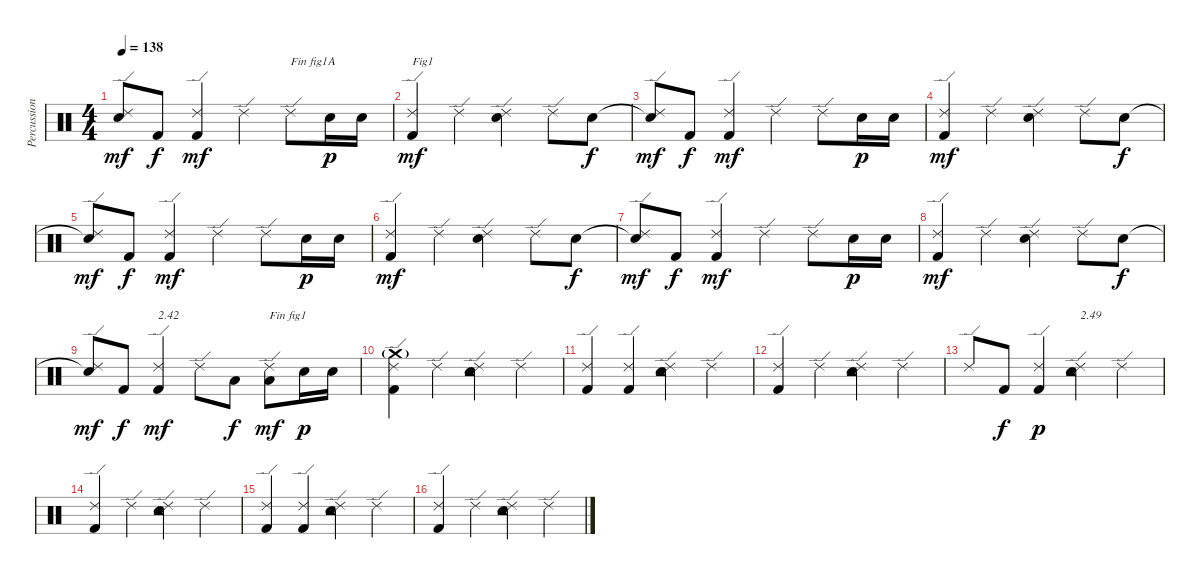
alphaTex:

\track ("Percussions" "Percussion") {instrument percussion}
\staff {score}
\articulation defaults
\ts (4 4)
\tempo 138
\clef neutral
\ks c
("Snare (hit)"{t} "Ride (edge) 2").8{dy mf} "Kick (hit) 2".8{dy f} ("Kick (hit) 2" "Ride (edge) 2").4{dy mf} "Ride (edge) 2".4 "Ride (edge) 2".8{txt "Fin fig1A"} "Snare (hit) 2".16{dy p} "Snare (hit) 2".16 |
("Kick (hit) 2" "Ride (edge) 2").4{txt "Fig1" dy mf} "Ride (edge) 2".4 ("Snare (hit) 2" "Ride (edge) 2").4 "Ride (edge) 2".8 "Snare (hit) 2".8{dy f} |
("Snare (hit)"{t} "Ride (edge) 2").8{dy mf} "Kick (hit) 2".8{dy f} ("Kick (hit) 2" "Ride (edge) 2").4{dy mf} "Ride (edge) 2".4 "Ride (edge) 2".8 "Snare (hit) 2".16{dy p} "Snare (hit) 2".16 |
("Kick (hit) 2" "Ride (edge) 2").4{dy mf} "Ride (edge) 2".4 ("Snare (hit) 2" "Ride (edge) 2").4 "Ride (edge) 2".8 "Snare (hit) 2".8{dy f} |
("Snare (hit)"{t} "Ride (edge) 2").8{dy mf} "Kick (hit) 2".8{dy f} ("Kick (hit) 2" "Ride (edge) 2").4{dy mf} "Ride (edge) 2".4 "Ride (edge) 2".8 "Snare (hit) 2".16{dy p} "Snare (hit) 2".16 |
("Kick (hit) 2" "Ride (edge) 2").4{dy mf} "Ride (edge) 2".4 ("Snare (hit) 2" "Ride (edge) 2").4 "Ride (edge) 2".8 "Snare (hit) 2".8{dy f} |
("Snare (hit)"{t} "Ride (edge) 2").8{dy mf} "Kick (hit) 2".8{dy f} ("Kick (hit) 2" "Ride (edge) 2").4{dy mf} "Ride (edge) 2".4 "Ride (edge) 2".8 "Snare (hit) 2".16{dy p} "Snare (hit) 2".16 |
("Kick (hit) 2" "Ride (edge) 2").4{dy mf} "Ride (edge) 2".4 ("Snare (hit) 2" "Ride (edge) 2").4 "Ride (edge) 2".8 "Snare (hit) 2".8{dy f} |
("Snare (hit)"{t} "Ride (edge) 2").8{dy mf} "Kick (hit) 2".8{dy f} ("Kick (hit) 2" "Ride (edge) 2").4{txt "2.42" dy mf} "Ride (edge) 2".8 "Low Floor Tom (hit)".8{dy f} ("Low Floor Tom (hit)" "Ride (edge) 2").8{txt "Fin fig1" dy mf} "Snare (hit) 2".16{dy p} "Snare (hit) 2".16 |
("Kick (hit) 2" "Crash medium (hit)"{g} "Ride (edge) 2").4 "Ride (edge) 2".4 ("Snare (hit) 2" "Tambourine (hit)" "Ride (edge) 2").4 "Ride (edge) 2".4 |
("Kick (hit) 2" "Ride (edge) 2").4 ("Kick (hit) 2" "Ride (edge) 2").4 ("Snare (hit) 2" "Tambourine (hit)" "Ride (edge) 2").4 "Ride (edge) 2".4 |
("Kick (hit) 2" "Ride (edge) 2").4 "Ride (edge) 2".4 ("Snare (hit) 2" "Tambourine (hit)" "Ride (edge) 2").4 "Ride (edge) 2".4 |
"Ride (edge) 2".8 "Kick (hit) 2".8{dy f} ("Kick (hit) 2" "Ride (edge) 2").4{dy p} ("Snare (hit) 2" "Tambourine (hit)" "Ride (edge) 2").4{txt "2.49"} "Ride (edge) 2".4 |
("Kick (hit) 2" "Ride (edge) 2").4 "Ride (edge) 2".4 ("Snare (hit) 2" "Tambourine (hit)" "Ride (edge) 2").4 "Ride (edge) 2".4 |
("Kick (hit) 2" "Ride (edge) 2").4 ("Kick (hit) 2" "Ride (edge) 2").4 ("Snare (hit) 2" "Tambourine (hit)" "Ride (edge) 2").4 "Ride (edge) 2".4 |
("Kick (hit) 2" "Ride (edge) 2").4 "Ride (edge) 2".4 ("Snare (hit) 2" "Tambourine (hit)" "Ride (edge) 2").4 "Ride (edge) 2".4
